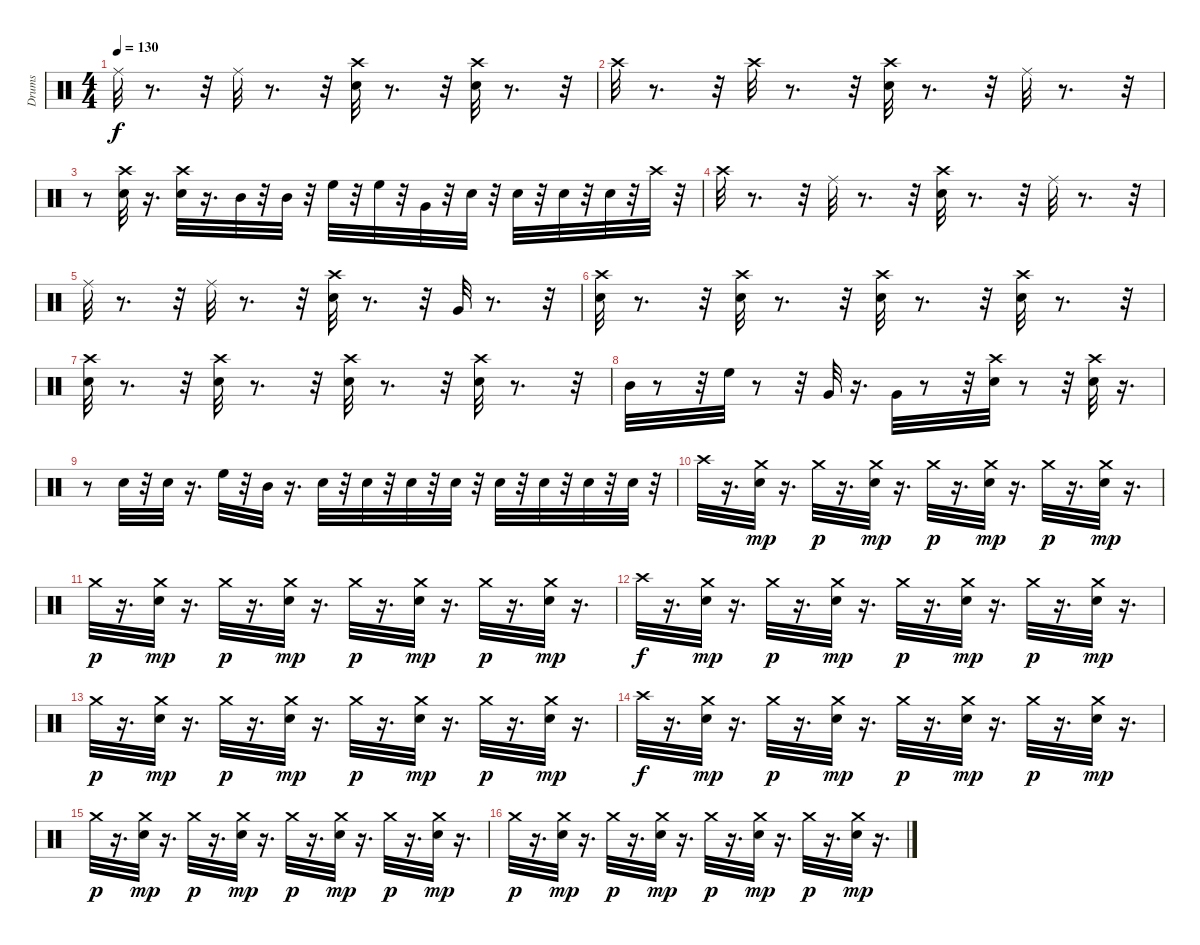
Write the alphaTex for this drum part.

\track ("Drums" "Drums") {instrument percussion}
\staff {score}
\articulation defaults
\ts (4 4)
\tempo 130
\clef neutral
\ks c "Ride (middle)".32{dy f}
r.8{d} r.32 "Ride (middle)".32 r.8{d} r.32 ("Crash high (hit)" "Snare (hit) 2").32 r.8{d} r.32 ("Crash high (hit)" "Snare (hit) 2").32 r.8{d} r.32 |
"Crash high (hit)".32 r.8{d} r.32 "Crash high (hit)".32 r.8{d} r.32 ("Snare (hit) 2" "Crash high (hit)").32 r.8{d} r.32 "Ride (middle)".32 r.8{d} r.32 |
r.8 ("Crash high (hit)" "Snare (hit) 2").32 r.16{d} ("Snare (hit) 2" "Crash high (hit)").32 r.16{d} "Mid Tom (hit)".32 r.32 "Mid Tom (hit)".32 r.32 "High Floor Tom (hit)".32 r.32 "High Floor Tom (hit)".32 r.32 "Very Low Tom (hit)".32 r.32 "Snare (hit) 2".32 r.32 "Snare (hit) 2".32 r.32 "Snare (hit) 2".32 r.32 "Snare (hit) 2".32 r.32 "Crash high (hit)".32 r.32 |
"Crash high (hit)".32 r.8{d} r.32 "Ride (middle)".32 r.8{d} r.32 ("Snare (hit) 2" "Crash high (hit)").32 r.8{d} r.32 "Ride (middle)".32 r.8{d} r.32 |
"Ride (middle)".32 r.8{d} r.32 "Ride (middle)".32 r.8{d} r.32 ("Snare (hit) 2" "Crash high (hit)").32 r.8{d} r.32 "Very Low Tom (hit)".32 r.8{d} r.32 |
("Crash high (hit)" "Snare (hit) 2").32 r.8{d} r.32 ("Crash high (hit)" "Snare (hit) 2").32 r.8{d} r.32 ("Crash high (hit)" "Snare (hit) 2").32 r.8{d} r.32 ("Crash high (hit)" "Snare (hit) 2").32 r.8{d} r.32 |
("Crash high (hit)" "Snare (hit) 2").32 r.8{d} r.32 ("Crash high (hit)" "Snare (hit) 2").32 r.8{d} r.32 ("Crash high (hit)" "Snare (hit) 2").32 r.8{d} r.32 ("Crash high (hit)" "Snare (hit) 2").32 r.8{d} r.32 |
"Mid Tom (hit)".32 r.8 r.32 "High Floor Tom (hit)".32 r.8 r.32 "Very Low Tom (hit)".32 r.16{d} "Very Low Tom (hit)".32 r.8 r.32 ("Crash high (hit)" "Snare (hit) 2").32 r.8 r.32 ("Crash high (hit)" "Snare (hit) 2").32 r.16{d} |
r.8 "Snare (hit) 2".32 r.32 "Snare (hit) 2".32 r.16{d} "High Floor Tom (hit)".32 r.32 "Mid Tom (hit)".32 r.16{d} "Snare (hit) 2".32 r.32 "Snare (hit) 2".32 r.32 "Snare (hit) 2".32 r.32 "Snare (hit) 2".32 r.32 "Snare (hit) 2".32 r.32 "Snare (hit) 2".32 r.32 "Snare (hit) 2".32 r.32 "Snare (hit) 2".32 r.32 |
"Crash high (hit)".32 r.16{d} ("Snare (hit) 2" "Crash medium (hit)").32{dy mp} r.16{d} "Crash medium (hit)".32{dy p} r.16{d} ("Snare (hit) 2" "Crash medium (hit)").32{dy mp} r.16{d} "Crash medium (hit)".32{dy p} r.16{d} ("Snare (hit) 2" "Crash medium (hit)").32{dy mp} r.16{d} "Crash medium (hit)".32{dy p} r.16{d} ("Snare (hit) 2" "Crash medium (hit)").32{dy mp} r.16{d} |
"Crash medium (hit)".32{dy p} r.16{d} ("Snare (hit) 2" "Crash medium (hit)").32{dy mp} r.16{d} "Crash medium (hit)".32{dy p} r.16{d} ("Snare (hit) 2" "Crash medium (hit)").32{dy mp} r.16{d} "Crash medium (hit)".32{dy p} r.16{d} ("Snare (hit) 2" "Crash medium (hit)").32{dy mp} r.16{d} "Crash medium (hit)".32{dy p} r.16{d} ("Snare (hit) 2" "Crash medium (hit)").32{dy mp} r.16{d} |
"Crash high (hit)".32{dy f} r.16{d} ("Snare (hit) 2" "Crash medium (hit)").32{dy mp} r.16{d} "Crash medium (hit)".32{dy p} r.16{d} ("Snare (hit) 2" "Crash medium (hit)").32{dy mp} r.16{d} "Crash medium (hit)".32{dy p} r.16{d} ("Snare (hit) 2" "Crash medium (hit)").32{dy mp} r.16{d} "Crash medium (hit)".32{dy p} r.16{d} ("Snare (hit) 2" "Crash medium (hit)").32{dy mp} r.16{d} |
"Crash medium (hit)".32{dy p} r.16{d} ("Snare (hit) 2" "Crash medium (hit)").32{dy mp} r.16{d} "Crash medium (hit)".32{dy p} r.16{d} ("Snare (hit) 2" "Crash medium (hit)").32{dy mp} r.16{d} "Crash medium (hit)".32{dy p} r.16{d} ("Snare (hit) 2" "Crash medium (hit)").32{dy mp} r.16{d} "Crash medium (hit)".32{dy p} r.16{d} ("Snare (hit) 2" "Crash medium (hit)").32{dy mp} r.16{d} |
"Crash high (hit)".32{dy f} r.16{d} ("Snare (hit) 2" "Crash medium (hit)").32{dy mp} r.16{d} "Crash medium (hit)".32{dy p} r.16{d} ("Snare (hit) 2" "Crash medium (hit)").32{dy mp} r.16{d} "Crash medium (hit)".32{dy p} r.16{d} ("Snare (hit) 2" "Crash medium (hit)").32{dy mp} r.16{d} "Crash medium (hit)".32{dy p} r.16{d} ("Snare (hit) 2" "Crash medium (hit)").32{dy mp} r.16{d} |
"Crash medium (hit)".32{dy p} r.16{d} ("Snare (hit) 2" "Crash medium (hit)").32{dy mp} r.16{d} "Crash medium (hit)".32{dy p} r.16{d} ("Snare (hit) 2" "Crash medium (hit)").32{dy mp} r.16{d} "Crash medium (hit)".32{dy p} r.16{d} ("Snare (hit) 2" "Crash medium (hit)").32{dy mp} r.16{d} "Crash medium (hit)".32{dy p} r.16{d} ("Snare (hit) 2" "Crash medium (hit)").32{dy mp} r.16{d} |
"Crash medium (hit)".32{dy p} r.16{d} ("Snare (hit) 2" "Crash medium (hit)").32{dy mp} r.16{d} "Crash medium (hit)".32{dy p} r.16{d} ("Snare (hit) 2" "Crash medium (hit)").32{dy mp} r.16{d} "Crash medium (hit)".32{dy p} r.16{d} ("Snare (hit) 2" "Crash medium (hit)").32{dy mp} r.16{d} "Crash medium (hit)".32{dy p} r.16{d} ("Snare (hit) 2" "Crash medium (hit)").32{dy mp} r.16{d}
